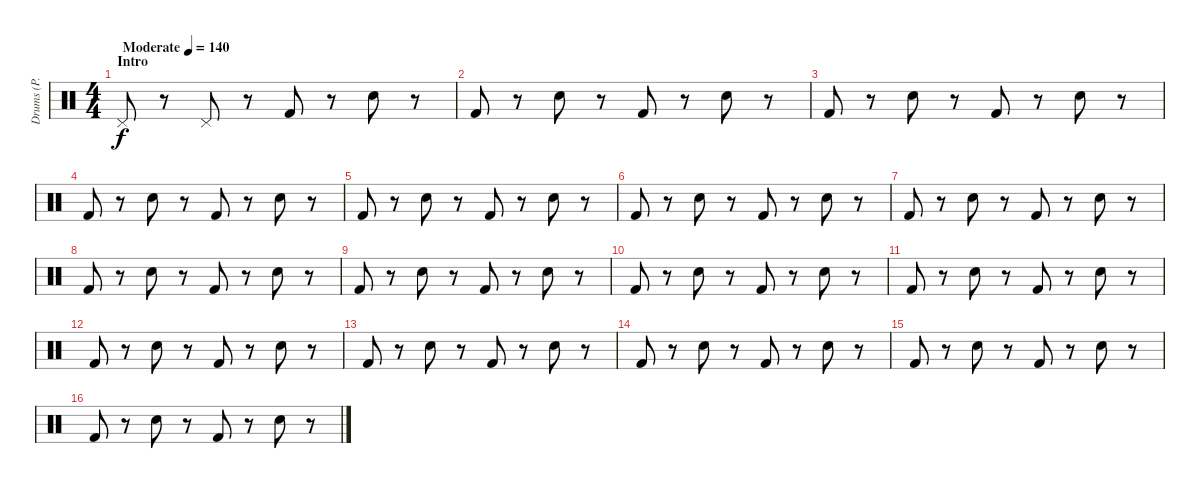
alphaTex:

\track ("Drums (P. Rudd)" "Drums (P. ") {instrument percussion}
\staff {score}
\articulation defaults
\ts (4 4)
\section ("" "Intro")
\tempo (140 "Moderate")
\clef neutral
\ks c "Pedal Hi-Hat (hit)".8{dy f}
r.8 "Pedal Hi-Hat (hit)".8 r.8 "Kick (hit) 2".8 r.8 "Snare (hit) 2".8 r.8 |
"Kick (hit) 2".8 r.8 "Snare (hit) 2".8 r.8 "Kick (hit) 2".8 r.8 "Snare (hit) 2".8 r.8 |
"Kick (hit) 2".8 r.8 "Snare (hit) 2".8 r.8 "Kick (hit) 2".8 r.8 "Snare (hit) 2".8 r.8 |
"Kick (hit) 2".8 r.8 "Snare (hit) 2".8 r.8 "Kick (hit) 2".8 r.8 "Snare (hit) 2".8 r.8 |
"Kick (hit) 2".8 r.8 "Snare (hit) 2".8 r.8 "Kick (hit) 2".8 r.8 "Snare (hit) 2".8 r.8 |
"Kick (hit) 2".8 r.8 "Snare (hit) 2".8 r.8 "Kick (hit) 2".8 r.8 "Snare (hit) 2".8 r.8 |
"Kick (hit) 2".8 r.8 "Snare (hit) 2".8 r.8 "Kick (hit) 2".8 r.8 "Snare (hit) 2".8 r.8 |
"Kick (hit) 2".8 r.8 "Snare (hit) 2".8 r.8 "Kick (hit) 2".8 r.8 "Snare (hit) 2".8 r.8 |
"Kick (hit) 2".8 r.8 "Snare (hit) 2".8 r.8 "Kick (hit) 2".8 r.8 "Snare (hit) 2".8 r.8 |
"Kick (hit) 2".8 r.8 "Snare (hit) 2".8 r.8 "Kick (hit) 2".8 r.8 "Snare (hit) 2".8 r.8 |
"Kick (hit) 2".8 r.8 "Snare (hit) 2".8 r.8 "Kick (hit) 2".8 r.8 "Snare (hit) 2".8 r.8 |
"Kick (hit) 2".8 r.8 "Snare (hit) 2".8 r.8 "Kick (hit) 2".8 r.8 "Snare (hit) 2".8 r.8 |
"Kick (hit) 2".8 r.8 "Snare (hit) 2".8 r.8 "Kick (hit) 2".8 r.8 "Snare (hit) 2".8 r.8 |
"Kick (hit) 2".8 r.8 "Snare (hit) 2".8 r.8 "Kick (hit) 2".8 r.8 "Snare (hit) 2".8 r.8 |
"Kick (hit) 2".8 r.8 "Snare (hit) 2".8 r.8 "Kick (hit) 2".8 r.8 "Snare (hit) 2".8 r.8 |
"Kick (hit) 2".8 r.8 "Snare (hit) 2".8 r.8 "Kick (hit) 2".8 r.8 "Snare (hit) 2".8 r.8
